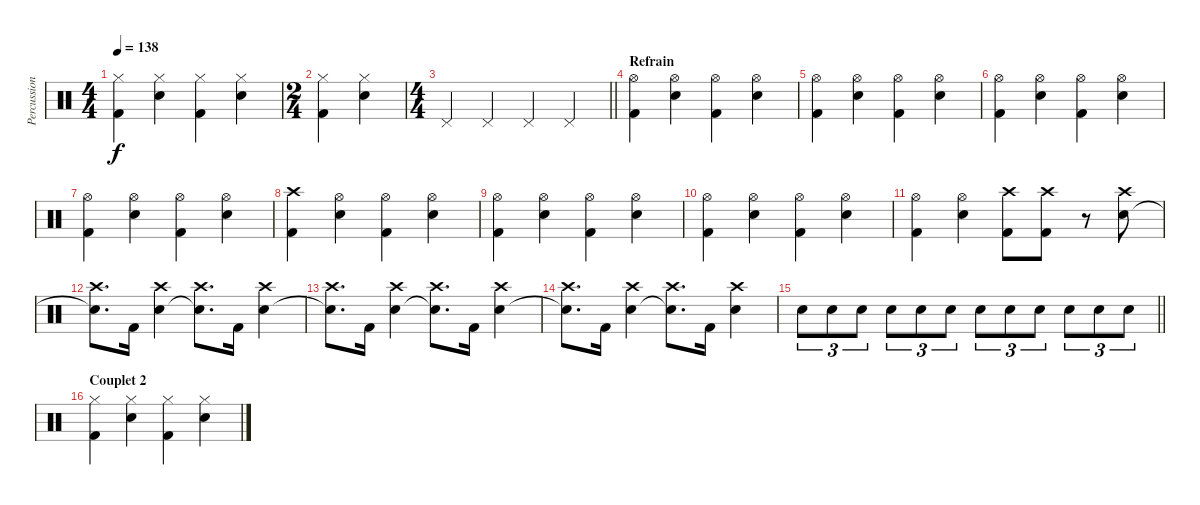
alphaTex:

\track ("Percussions Karim" "Percussion") {instrument percussion}
\staff {score}
\articulation defaults
\ts (4 4)
\tempo 138
\clef neutral
\ks c
("Hi-Hat (closed)" "Kick (hit) 2").4{dy f} ("Hi-Hat (closed)" "Electric Snare (hit)").4 ("Hi-Hat (closed)" "Kick (hit) 2").4 ("Hi-Hat (closed)" "Electric Snare (hit)").4 |
\ts (2 4)
("Hi-Hat (closed)" "Kick (hit) 2").4 ("Hi-Hat (closed)" "Electric Snare (hit)").4 |
\ts (4 4)
\barLineRight lightlight "Pedal Hi-Hat (hit)".4 "Pedal Hi-Hat (hit)".4 "Pedal Hi-Hat (hit)".4 "Pedal Hi-Hat (hit)".4
|
\section ("" "Refrain")
("Hi-Hat (open)" "Kick (hit) 2").4 ("Hi-Hat (open)" "Snare (hit) 2").4 ("Hi-Hat (open)" "Kick (hit) 2").4 ("Hi-Hat (open)" "Snare (hit) 2").4 |
("Hi-Hat (open)" "Kick (hit) 2").4 ("Hi-Hat (open)" "Snare (hit) 2").4 ("Hi-Hat (open)" "Kick (hit) 2").4 ("Hi-Hat (open)" "Snare (hit) 2").4 |
("Hi-Hat (open)" "Kick (hit) 2").4 ("Hi-Hat (open)" "Snare (hit) 2").4 ("Hi-Hat (open)" "Kick (hit) 2").4 ("Hi-Hat (open)" "Snare (hit) 2").4 |
("Hi-Hat (open)" "Kick (hit) 2").4 ("Hi-Hat (open)" "Snare (hit) 2").4 ("Hi-Hat (open)" "Kick (hit) 2").4 ("Hi-Hat (open)" "Snare (hit) 2").4 |
("Crash high (hit)" "Kick (hit) 2").4 ("Hi-Hat (open)" "Snare (hit) 2").4 ("Hi-Hat (open)" "Kick (hit) 2").4 ("Hi-Hat (open)" "Snare (hit) 2").4 |
("Hi-Hat (open)" "Kick (hit) 2").4 ("Hi-Hat (open)" "Snare (hit) 2").4 ("Hi-Hat (open)" "Kick (hit) 2").4 ("Hi-Hat (open)" "Snare (hit) 2").4 |
("Hi-Hat (open)" "Kick (hit) 2").4 ("Hi-Hat (open)" "Snare (hit) 2").4 ("Hi-Hat (open)" "Kick (hit) 2").4 ("Hi-Hat (open)" "Snare (hit) 2").4 |
("Hi-Hat (open)" "Kick (hit) 2").4 ("Hi-Hat (open)" "Snare (hit) 2").4 ("Crash high (hit)" "Kick (hit) 2").8 ("Crash high (hit)" "Kick (hit) 2").8 r.8 ("Crash high (hit)" "Electric Snare (hit)").8 |
("Crash high (hit)" "Electric Snare (hit)"{t}).8{d} "Kick (hit) 2".16 ("Crash high (hit)" "Electric Snare (hit)").4 ("Crash high (hit)" "Electric Snare (hit)"{t}).8{d} "Kick (hit) 2".16 ("Crash high (hit)" "Electric Snare (hit)").4 |
("Crash high (hit)" "Electric Snare (hit)"{t}).8{d} "Kick (hit) 2".16 ("Crash high (hit)" "Electric Snare (hit)").4 ("Crash high (hit)" "Electric Snare (hit)"{t}).8{d} "Kick (hit) 2".16 ("Crash high (hit)" "Electric Snare (hit)").4 |
("Crash high (hit)" "Electric Snare (hit)"{t}).8{d} "Kick (hit) 2".16 ("Crash high (hit)" "Electric Snare (hit)").4 ("Crash high (hit)" "Electric Snare (hit)"{t}).8{d} "Kick (hit) 2".16 ("Crash high (hit)" "Electric Snare (hit)").4 |
\barLineRight lightlight "Electric Snare (hit)".8{tu (3 2)} "Electric Snare (hit)".8{tu (3 2)} "Electric Snare (hit)".8{tu (3 2)} "Electric Snare (hit)".8{tu (3 2)} "Electric Snare (hit)".8{tu (3 2)} "Electric Snare (hit)".8{tu (3 2)} "Electric Snare (hit)".8{tu (3 2)} "Electric Snare (hit)".8{tu (3 2)} "Electric Snare (hit)".8{tu (3 2)} "Electric Snare (hit)".8{tu (3 2)} "Electric Snare (hit)".8{tu (3 2)} "Electric Snare (hit)".8{tu (3 2)}
|
\section ("" "Couplet 2")
("Hi-Hat (closed)" "Kick (hit) 2").4 ("Hi-Hat (closed)" "Electric Snare (hit)").4 ("Hi-Hat (closed)" "Kick (hit) 2").4 ("Hi-Hat (closed)" "Electric Snare (hit)").4
